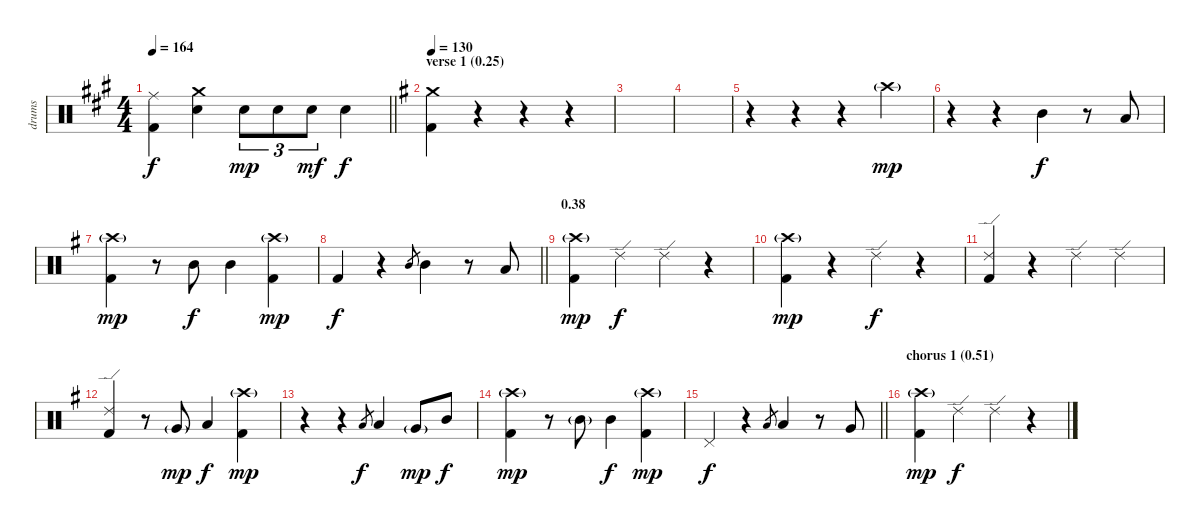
\track ("drums" "drums") {instrument percussion}
\staff {score}
\articulation defaults
\ts (4 4)
\tempo 164
\clef neutral
\barLineRight lightlight
\ks a
("Ride (middle)" "Kick (hit) 2").4{dy f} ("Crash medium (hit)" "Electric Snare (hit)").4 "Electric Snare (hit)".8{tu (3 2) dy mp} "Electric Snare (hit)".8{tu (3 2)} "Electric Snare (hit)".8{tu (3 2) dy mf} "Electric Snare (hit)".4{dy f} |
\section ("" "verse 1 (0.25)")
\tempo 130
\ks g
("Crash medium (hit)" "Kick (hit) 2").4 r.4 r.4 r.4 |
|
|
r.4 r.4 r.4 "Crash high (hit)"{g}.4{dy mp} |
r.4 r.4 "Mid Tom (hit)".4{dy f} r.8 "Low Tom (hit)".8 |
("Crash high (hit)"{g} "Kick (hit) 2").4{dy mp} r.8 "Mid Tom (hit)".8{dy f} "Mid Tom (hit)".4 ("Crash high (hit)"{g} "Kick (hit) 2").4{dy mp} |
\barLineRight lightlight "Kick (hit) 2".4{dy f}
r.4 "Mid Tom (hit)".8{gr} "Mid Tom (hit)".4 r.8 "Low Tom (hit)".8 |
\section ("" "0.38")
("Crash high (hit)"{g} "Kick (hit) 2").4{dy mp} "Ride (edge) 2".4{dy f} "Ride (edge) 2".4 r.4 |
("Crash high (hit)"{g} "Kick (hit) 2").4{dy mp} r.4 "Ride (edge) 2".4{dy f} r.4 |
("Ride (edge) 2" "Kick (hit) 2").4 r.4 "Ride (edge) 2".4 "Ride (edge) 2".4 |
("Ride (edge) 2" "Kick (hit) 2").4 r.8 "Very Low Tom (hit)"{g}.8{dy mp} "Low Tom (hit)".4{dy f} ("Crash high (hit)"{g} "Kick (hit) 2").4{dy mp} |
r.4 r.4 "Low Tom (hit)".8{gr dy f} "Low Tom (hit)".4 "Very Low Tom (hit)"{g}.8{dy mp} "Mid Tom (hit)".8{dy f} |
("Crash high (hit)"{g} "Kick (hit) 2").4{dy mp} r.8 "Mid Tom (hit)"{g}.8 "Mid Tom (hit)".4{dy f} ("Crash high (hit)"{g} "Kick (hit) 2").4{dy mp} |
\barLineRight lightlight "Pedal Hi-Hat (hit)".4{dy f}
r.4 "Low Tom (hit)".8{gr} "Low Tom (hit)".4 r.8 "Very Low Tom (hit)".8 |
\section ("" "chorus 1 (0.51)")
("Crash high (hit)"{g} "Kick (hit) 2").4{dy mp} "Ride (edge) 2".4{dy f} "Ride (edge) 2".4 r.4
